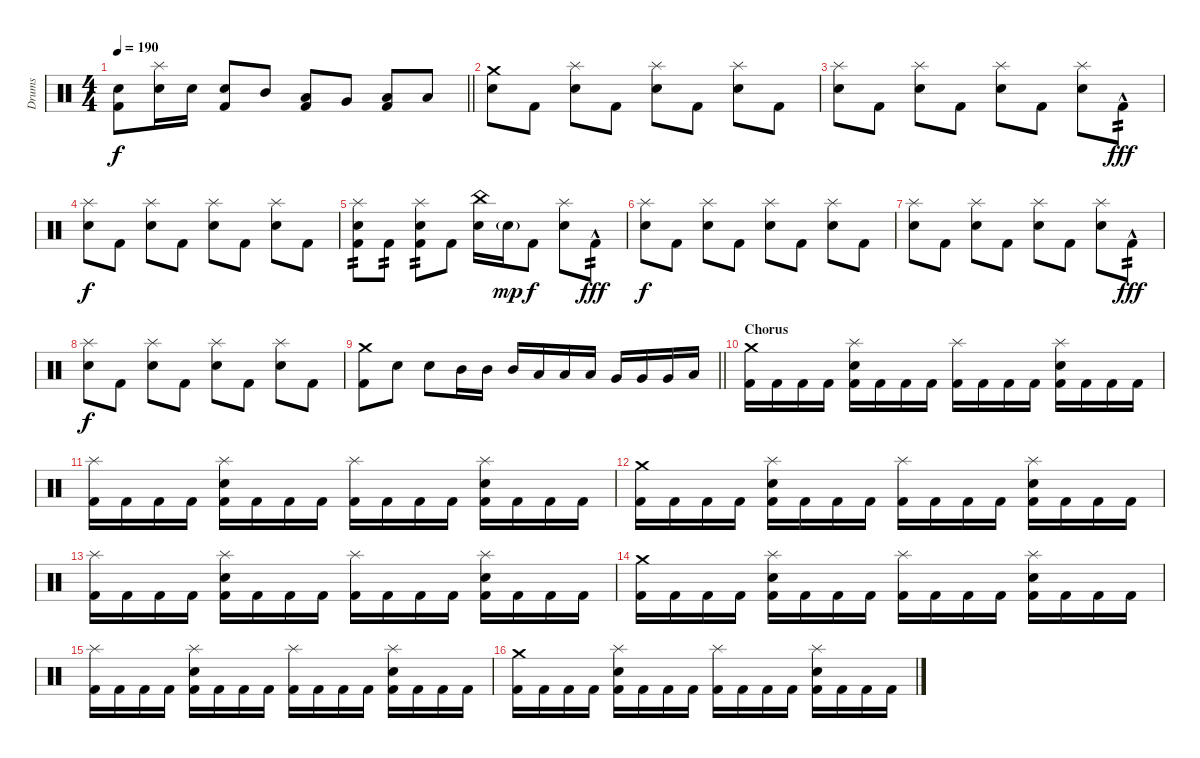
\track ("Drums" "Drums") {instrument percussion}
\staff {score}
\articulation defaults
\ts (4 4)
\tempo 190
\clef neutral
\barLineRight lightlight
\ks c
("Kick (hit) 2" "Snare (hit) 2").8{dy f} ("Snare (hit) 2" "Splash (hit)").16 "Snare (hit) 2".16 ("Kick (hit) 2" "Snare (hit) 2").8 "Mid Tom (hit)".8 ("Kick (hit) 2" "Low Tom (hit)").8 "Very Low Tom (hit)".8 ("Kick (hit) 2" "Low Floor Tom (hit)").8 "Low Floor Tom (hit)".8 |
\section ("" "")
("Snare (hit) 2" "Crash medium (hit)").8 "Kick (hit) 2".8 ("Snare (hit) 2" "Splash (hit)").8 "Kick (hit) 2".8 ("Snare (hit) 2" "Splash (hit)").8 "Kick (hit) 2".8 ("Snare (hit) 2" "Splash (hit)").8 "Kick (hit) 2".8 |
("Snare (hit) 2" "Splash (hit)").8 "Kick (hit) 2".8 ("Snare (hit) 2" "Splash (hit)").8 "Kick (hit) 2".8 ("Snare (hit) 2" "Splash (hit)").8 "Kick (hit) 2".8 ("Snare (hit) 2" "Splash (hit)").8 "Kick (hit) 2"{hac}.8{tp 2 dy fff} |
("Snare (hit) 2" "Splash (hit)").8{dy f} "Kick (hit) 2".8 ("Snare (hit) 2" "Splash (hit)").8 "Kick (hit) 2".8 ("Snare (hit) 2" "Splash (hit)").8 "Kick (hit) 2".8 ("Snare (hit) 2" "Splash (hit)").8 "Kick (hit) 2".8 |
("Kick (hit) 2" "Snare (hit) 2" "Splash (hit)").8{tp 2} "Kick (hit) 2".8{tp 2} ("Kick (hit) 2" "Snare (hit) 2" "Splash (hit)").8{tp 2} "Kick (hit) 2".8 ("Snare (hit) 2" "China (hit)").16 "Snare (hit) 2"{g}.16{dy mp} "Kick (hit) 2".8{dy f} ("Snare (hit) 2" "Splash (hit)").8 "Kick (hit) 2"{hac}.8{tp 2 dy fff} |
("Snare (hit) 2" "Splash (hit)").8{dy f} "Kick (hit) 2".8 ("Snare (hit) 2" "Splash (hit)").8 "Kick (hit) 2".8 ("Snare (hit) 2" "Splash (hit)").8 "Kick (hit) 2".8 ("Snare (hit) 2" "Splash (hit)").8 "Kick (hit) 2".8 |
("Snare (hit) 2" "Splash (hit)").8 "Kick (hit) 2".8 ("Snare (hit) 2" "Splash (hit)").8 "Kick (hit) 2".8 ("Snare (hit) 2" "Splash (hit)").8 "Kick (hit) 2".8 ("Snare (hit) 2" "Splash (hit)").8 "Kick (hit) 2"{hac}.8{tp 2 dy fff} |
("Snare (hit) 2" "Splash (hit)").8{dy f} "Kick (hit) 2".8 ("Snare (hit) 2" "Splash (hit)").8 "Kick (hit) 2".8 ("Snare (hit) 2" "Splash (hit)").8 "Kick (hit) 2".8 ("Snare (hit) 2" "Splash (hit)").8 "Kick (hit) 2".8 |
\barLineRight lightlight
("Kick (hit) 2" "Crash medium (hit)").8 "Snare (hit) 2".8 "Snare (hit) 2".8 "Mid Tom (hit)".16 "Mid Tom (hit)".16 "Mid Tom (hit)".16 "Low Tom (hit)".16 "Low Tom (hit)".16 "Low Tom (hit)".16 "Very Low Tom (hit)".16 "Very Low Tom (hit)".16 "Very Low Tom (hit)".16 "Low Floor Tom (hit)".16 |
\section ("" "Chorus")
("Kick (hit) 2" "Crash medium (hit)").16 "Kick (hit) 2".16 "Kick (hit) 2".16 "Kick (hit) 2".16 ("Kick (hit) 2" "Snare (hit) 2" "Splash (hit)").16 "Kick (hit) 2".16 "Kick (hit) 2".16 "Kick (hit) 2".16 ("Kick (hit) 2" "Splash (hit)").16 "Kick (hit) 2".16 "Kick (hit) 2".16 "Kick (hit) 2".16 ("Kick (hit) 2" "Snare (hit) 2" "Splash (hit)").16 "Kick (hit) 2".16 "Kick (hit) 2".16 "Kick (hit) 2".16 |
("Kick (hit) 2" "Splash (hit)").16 "Kick (hit) 2".16 "Kick (hit) 2".16 "Kick (hit) 2".16 ("Kick (hit) 2" "Snare (hit) 2" "Splash (hit)").16 "Kick (hit) 2".16 "Kick (hit) 2".16 "Kick (hit) 2".16 ("Kick (hit) 2" "Splash (hit)").16 "Kick (hit) 2".16 "Kick (hit) 2".16 "Kick (hit) 2".16 ("Kick (hit) 2" "Snare (hit) 2" "Splash (hit)").16 "Kick (hit) 2".16 "Kick (hit) 2".16 "Kick (hit) 2".16 |
("Kick (hit) 2" "Crash medium (hit)").16 "Kick (hit) 2".16 "Kick (hit) 2".16 "Kick (hit) 2".16 ("Kick (hit) 2" "Snare (hit) 2" "Splash (hit)").16 "Kick (hit) 2".16 "Kick (hit) 2".16 "Kick (hit) 2".16 ("Kick (hit) 2" "Splash (hit)").16 "Kick (hit) 2".16 "Kick (hit) 2".16 "Kick (hit) 2".16 ("Kick (hit) 2" "Snare (hit) 2" "Splash (hit)").16 "Kick (hit) 2".16 "Kick (hit) 2".16 "Kick (hit) 2".16 |
("Kick (hit) 2" "Splash (hit)").16 "Kick (hit) 2".16 "Kick (hit) 2".16 "Kick (hit) 2".16 ("Kick (hit) 2" "Snare (hit) 2" "Splash (hit)").16 "Kick (hit) 2".16 "Kick (hit) 2".16 "Kick (hit) 2".16 ("Kick (hit) 2" "Splash (hit)").16 "Kick (hit) 2".16 "Kick (hit) 2".16 "Kick (hit) 2".16 ("Kick (hit) 2" "Snare (hit) 2" "Splash (hit)").16 "Kick (hit) 2".16 "Kick (hit) 2".16 "Kick (hit) 2".16 |
("Kick (hit) 2" "Crash medium (hit)").16 "Kick (hit) 2".16 "Kick (hit) 2".16 "Kick (hit) 2".16 ("Kick (hit) 2" "Snare (hit) 2" "Splash (hit)").16 "Kick (hit) 2".16 "Kick (hit) 2".16 "Kick (hit) 2".16 ("Kick (hit) 2" "Splash (hit)").16 "Kick (hit) 2".16 "Kick (hit) 2".16 "Kick (hit) 2".16 ("Kick (hit) 2" "Snare (hit) 2" "Splash (hit)").16 "Kick (hit) 2".16 "Kick (hit) 2".16 "Kick (hit) 2".16 |
("Kick (hit) 2" "Splash (hit)").16 "Kick (hit) 2".16 "Kick (hit) 2".16 "Kick (hit) 2".16 ("Kick (hit) 2" "Snare (hit) 2" "Splash (hit)").16 "Kick (hit) 2".16 "Kick (hit) 2".16 "Kick (hit) 2".16 ("Kick (hit) 2" "Splash (hit)").16 "Kick (hit) 2".16 "Kick (hit) 2".16 "Kick (hit) 2".16 ("Kick (hit) 2" "Snare (hit) 2" "Splash (hit)").16 "Kick (hit) 2".16 "Kick (hit) 2".16 "Kick (hit) 2".16 |
("Kick (hit) 2" "Crash medium (hit)").16 "Kick (hit) 2".16 "Kick (hit) 2".16 "Kick (hit) 2".16 ("Kick (hit) 2" "Snare (hit) 2" "Splash (hit)").16 "Kick (hit) 2".16 "Kick (hit) 2".16 "Kick (hit) 2".16 ("Kick (hit) 2" "Splash (hit)").16 "Kick (hit) 2".16 "Kick (hit) 2".16 "Kick (hit) 2".16 ("Kick (hit) 2" "Snare (hit) 2" "Splash (hit)").16 "Kick (hit) 2".16 "Kick (hit) 2".16 "Kick (hit) 2".16
